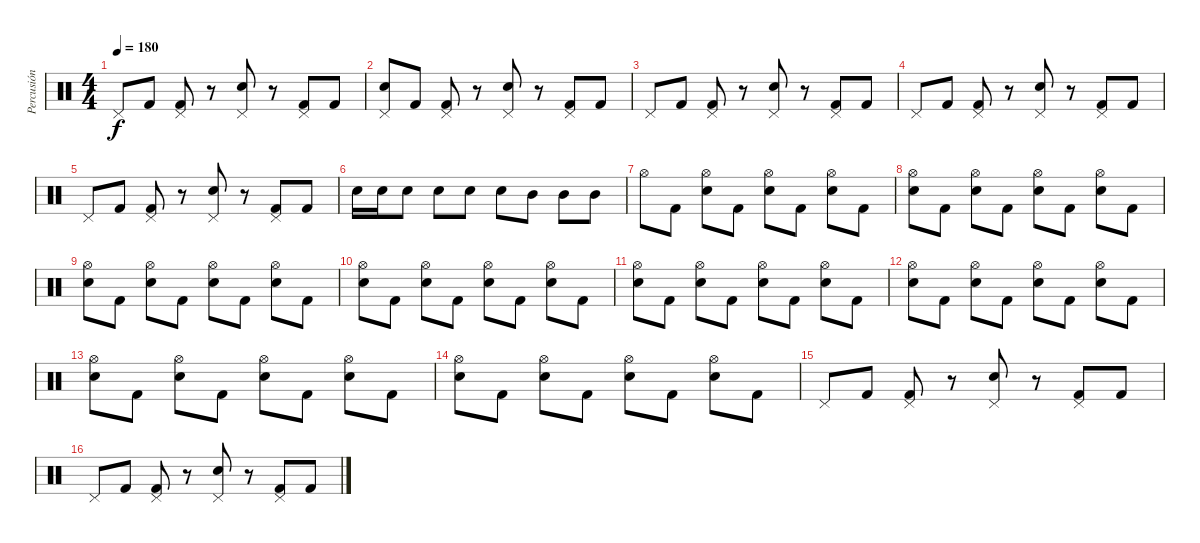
\track ("Percusión" "Percusión") {instrument percussion}
\staff {score}
\articulation defaults
\ts (4 4)
\tempo 180
\clef neutral
\ks c "Pedal Hi-Hat (hit)".8{dy f} "Kick (hit) 2".8
("Pedal Hi-Hat (hit)" "Kick (hit) 2").8 r.8 ("Pedal Hi-Hat (hit)" "Electric Snare (hit)").8 r.8 ("Pedal Hi-Hat (hit)" "Kick (hit) 2").8 "Kick (hit) 2".8 |
("Pedal Hi-Hat (hit)" "Electric Snare (hit)").8 "Kick (hit) 2".8 ("Pedal Hi-Hat (hit)" "Kick (hit) 2").8 r.8 ("Pedal Hi-Hat (hit)" "Electric Snare (hit)").8 r.8 ("Pedal Hi-Hat (hit)" "Kick (hit) 2").8 "Kick (hit) 2".8 |
"Pedal Hi-Hat (hit)".8 "Kick (hit) 2".8 ("Pedal Hi-Hat (hit)" "Kick (hit) 2").8 r.8 ("Pedal Hi-Hat (hit)" "Electric Snare (hit)").8 r.8 ("Pedal Hi-Hat (hit)" "Kick (hit) 2").8 "Kick (hit) 2".8 |
"Pedal Hi-Hat (hit)".8 "Kick (hit) 2".8 ("Pedal Hi-Hat (hit)" "Kick (hit) 2").8 r.8 ("Pedal Hi-Hat (hit)" "Electric Snare (hit)").8 r.8 ("Pedal Hi-Hat (hit)" "Kick (hit) 2").8 "Kick (hit) 2".8 |
"Pedal Hi-Hat (hit)".8 "Kick (hit) 2".8 ("Pedal Hi-Hat (hit)" "Kick (hit) 2").8 r.8 ("Pedal Hi-Hat (hit)" "Electric Snare (hit)").8 r.8 ("Pedal Hi-Hat (hit)" "Kick (hit) 2").8 "Kick (hit) 2".8 |
"Electric Snare (hit)".16 "Electric Snare (hit)".16 "Electric Snare (hit)".8 "Electric Snare (hit)".8 "Electric Snare (hit)".8 "Electric Snare (hit)".8 "Mid Tom (hit)".8 "Mid Tom (hit)".8 "Mid Tom (hit)".8 |
"Hi-Hat (open)".8 "Kick (hit) 2".8 ("Hi-Hat (open)" "Electric Snare (hit)").8 "Kick (hit) 2".8 ("Hi-Hat (open)" "Electric Snare (hit)").8 "Kick (hit) 2".8 ("Hi-Hat (open)" "Electric Snare (hit)").8 "Kick (hit) 2".8 |
("Hi-Hat (open)" "Electric Snare (hit)").8 "Kick (hit) 2".8 ("Hi-Hat (open)" "Electric Snare (hit)").8 "Kick (hit) 2".8 ("Hi-Hat (open)" "Electric Snare (hit)").8 "Kick (hit) 2".8 ("Hi-Hat (open)" "Electric Snare (hit)").8 "Kick (hit) 2".8 |
("Hi-Hat (open)" "Electric Snare (hit)").8 "Kick (hit) 2".8 ("Hi-Hat (open)" "Electric Snare (hit)").8 "Kick (hit) 2".8 ("Hi-Hat (open)" "Electric Snare (hit)").8 "Kick (hit) 2".8 ("Hi-Hat (open)" "Electric Snare (hit)").8 "Kick (hit) 2".8 |
("Hi-Hat (open)" "Electric Snare (hit)").8 "Kick (hit) 2".8 ("Hi-Hat (open)" "Electric Snare (hit)").8 "Kick (hit) 2".8 ("Hi-Hat (open)" "Electric Snare (hit)").8 "Kick (hit) 2".8 ("Hi-Hat (open)" "Electric Snare (hit)").8 "Kick (hit) 2".8 |
("Hi-Hat (open)" "Electric Snare (hit)").8 "Kick (hit) 2".8 ("Hi-Hat (open)" "Electric Snare (hit)").8 "Kick (hit) 2".8 ("Hi-Hat (open)" "Electric Snare (hit)").8 "Kick (hit) 2".8 ("Hi-Hat (open)" "Electric Snare (hit)").8 "Kick (hit) 2".8 |
("Hi-Hat (open)" "Electric Snare (hit)").8 "Kick (hit) 2".8 ("Hi-Hat (open)" "Electric Snare (hit)").8 "Kick (hit) 2".8 ("Hi-Hat (open)" "Electric Snare (hit)").8 "Kick (hit) 2".8 ("Hi-Hat (open)" "Electric Snare (hit)").8 "Kick (hit) 2".8 |
("Hi-Hat (open)" "Electric Snare (hit)").8 "Kick (hit) 2".8 ("Hi-Hat (open)" "Electric Snare (hit)").8 "Kick (hit) 2".8 ("Hi-Hat (open)" "Electric Snare (hit)").8 "Kick (hit) 2".8 ("Hi-Hat (open)" "Electric Snare (hit)").8 "Kick (hit) 2".8 |
("Hi-Hat (open)" "Electric Snare (hit)").8 "Kick (hit) 2".8 ("Hi-Hat (open)" "Electric Snare (hit)").8 "Kick (hit) 2".8 ("Hi-Hat (open)" "Electric Snare (hit)").8 "Kick (hit) 2".8 ("Hi-Hat (open)" "Electric Snare (hit)").8 "Kick (hit) 2".8 |
"Pedal Hi-Hat (hit)".8 "Kick (hit) 2".8 ("Pedal Hi-Hat (hit)" "Kick (hit) 2").8 r.8 ("Pedal Hi-Hat (hit)" "Electric Snare (hit)").8 r.8 ("Pedal Hi-Hat (hit)" "Kick (hit) 2").8 "Kick (hit) 2".8 |
"Pedal Hi-Hat (hit)".8 "Kick (hit) 2".8 ("Pedal Hi-Hat (hit)" "Kick (hit) 2").8 r.8 ("Pedal Hi-Hat (hit)" "Electric Snare (hit)").8 r.8 ("Pedal Hi-Hat (hit)" "Kick (hit) 2").8 "Kick (hit) 2".8
